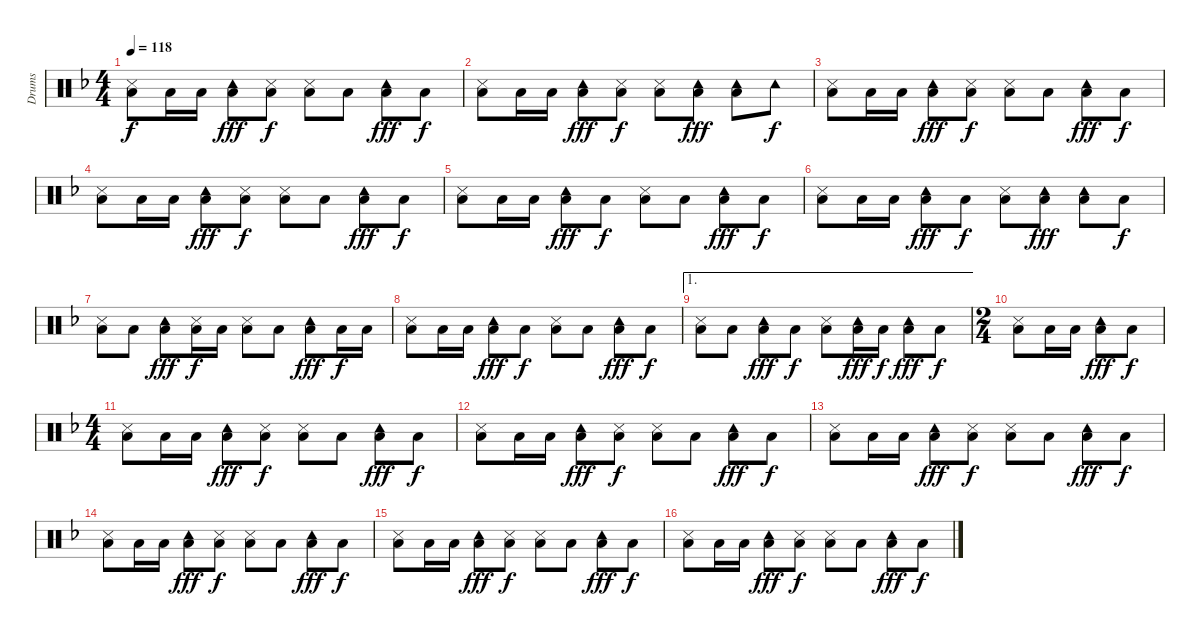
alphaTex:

\track ("Drums" "Drums") {instrument percussion}
\staff {score}
\articulation defaults
\ts (4 4)
\tempo 118
\clef neutral
\ks dminor
("Metronome (hit)" "Low Tom (hit)").8{dy f} "Low Tom (hit)".16 "Low Tom (hit)".16 ("Low Tom (hit)" "Tambourine (hit)").8{dy fff} ("Metronome (hit)" "Low Tom (hit)").8{dy f} ("Metronome (hit)" "Low Tom (hit)").8 "Low Tom (hit)".8 ("Low Tom (hit)" "Tambourine (hit)").8{dy fff} "Low Tom (hit)".8{dy f} |
("Metronome (hit)" "Low Tom (hit)").8 "Low Tom (hit)".16 "Low Tom (hit)".16 ("Low Tom (hit)" "Tambourine (hit)").8{dy fff} ("Metronome (hit)" "Low Tom (hit)").8{dy f} ("Metronome (hit)" "Low Tom (hit)").8 ("Low Tom (hit)" "Tambourine (hit)").8{dy fff} ("Low Tom (hit)" "Tambourine (hit)").8 "Tambourine (hit)".8{dy f} |
("Metronome (hit)" "Low Tom (hit)").8 "Low Tom (hit)".16 "Low Tom (hit)".16 ("Low Tom (hit)" "Tambourine (hit)").8{dy fff} ("Metronome (hit)" "Low Tom (hit)").8{dy f} ("Metronome (hit)" "Low Tom (hit)").8 "Low Tom (hit)".8 ("Low Tom (hit)" "Tambourine (hit)").8{dy fff} "Low Tom (hit)".8{dy f} |
("Metronome (hit)" "Low Tom (hit)").8 "Low Tom (hit)".16 "Low Tom (hit)".16 ("Low Tom (hit)" "Tambourine (hit)").8{dy fff} ("Metronome (hit)" "Low Tom (hit)").8{dy f} ("Metronome (hit)" "Low Tom (hit)").8 "Low Tom (hit)".8 ("Low Tom (hit)" "Tambourine (hit)").8{dy fff} "Low Tom (hit)".8{dy f} |
("Metronome (hit)" "Low Tom (hit)").8 "Low Tom (hit)".16 "Low Tom (hit)".16 ("Low Tom (hit)" "Tambourine (hit)").8{dy fff} "Low Tom (hit)".8{dy f} ("Metronome (hit)" "Low Tom (hit)").8 "Low Tom (hit)".8 ("Low Tom (hit)" "Tambourine (hit)").8{dy fff} "Low Tom (hit)".8{dy f} |
("Metronome (hit)" "Low Tom (hit)").8 "Low Tom (hit)".16 "Low Tom (hit)".16 ("Low Tom (hit)" "Tambourine (hit)").8{dy fff} "Low Tom (hit)".8{dy f} ("Metronome (hit)" "Low Tom (hit)").8 ("Low Tom (hit)" "Tambourine (hit)").8{dy fff} ("Low Tom (hit)" "Tambourine (hit)").8 "Low Tom (hit)".8{dy f} |
("Metronome (hit)" "Low Tom (hit)").8 "Low Tom (hit)".8 ("Low Tom (hit)" "Tambourine (hit)").8{dy fff} ("Metronome (hit)" "Low Tom (hit)").16{dy f} "Low Tom (hit)".16 ("Metronome (hit)" "Low Tom (hit)").8 "Low Tom (hit)".8 ("Low Tom (hit)" "Tambourine (hit)").8{dy fff} "Low Tom (hit)".16{dy f} "Low Tom (hit)".16 |
("Metronome (hit)" "Low Tom (hit)").8 "Low Tom (hit)".16 "Low Tom (hit)".16 ("Low Tom (hit)" "Tambourine (hit)").8{dy fff} "Low Tom (hit)".8{dy f} ("Metronome (hit)" "Low Tom (hit)").8 "Low Tom (hit)".8 ("Low Tom (hit)" "Tambourine (hit)").8{dy fff} "Low Tom (hit)".8{dy f} |
\ae 1
("Metronome (hit)" "Low Tom (hit)").8 "Low Tom (hit)".8 ("Low Tom (hit)" "Tambourine (hit)").8{dy fff} "Low Tom (hit)".8{dy f} ("Metronome (hit)" "Low Tom (hit)").8 ("Low Tom (hit)" "Tambourine (hit)").16{dy fff} "Low Tom (hit)".16{dy f} ("Low Tom (hit)" "Tambourine (hit)").8{dy fff} "Low Tom (hit)".8{dy f} |
\ts (2 4)
("Metronome (hit)" "Low Tom (hit)").8 "Low Tom (hit)".16 "Low Tom (hit)".16 ("Low Tom (hit)" "Tambourine (hit)").8{dy fff} "Low Tom (hit)".8{dy f} |
\ts (4 4)
("Metronome (hit)" "Low Tom (hit)").8 "Low Tom (hit)".16 "Low Tom (hit)".16 ("Low Tom (hit)" "Tambourine (hit)").8{dy fff} ("Metronome (hit)" "Low Tom (hit)").8{dy f} ("Metronome (hit)" "Low Tom (hit)").8 "Low Tom (hit)".8 ("Low Tom (hit)" "Tambourine (hit)").8{dy fff} "Low Tom (hit)".8{dy f} |
("Metronome (hit)" "Low Tom (hit)").8 "Low Tom (hit)".16 "Low Tom (hit)".16 ("Low Tom (hit)" "Tambourine (hit)").8{dy fff} ("Metronome (hit)" "Low Tom (hit)").8{dy f} ("Metronome (hit)" "Low Tom (hit)").8 "Low Tom (hit)".8 ("Low Tom (hit)" "Tambourine (hit)").8{dy fff} "Low Tom (hit)".8{dy f} |
("Metronome (hit)" "Low Tom (hit)").8 "Low Tom (hit)".16 "Low Tom (hit)".16 ("Low Tom (hit)" "Tambourine (hit)").8{dy fff} ("Metronome (hit)" "Low Tom (hit)").8{dy f} ("Metronome (hit)" "Low Tom (hit)").8 "Low Tom (hit)".8 ("Low Tom (hit)" "Tambourine (hit)").8{dy fff} "Low Tom (hit)".8{dy f} |
("Metronome (hit)" "Low Tom (hit)").8 "Low Tom (hit)".16 "Low Tom (hit)".16 ("Low Tom (hit)" "Tambourine (hit)").8{dy fff} ("Metronome (hit)" "Low Tom (hit)").8{dy f} ("Metronome (hit)" "Low Tom (hit)").8 "Low Tom (hit)".8 ("Low Tom (hit)" "Tambourine (hit)").8{dy fff} "Low Tom (hit)".8{dy f} |
("Metronome (hit)" "Low Tom (hit)").8 "Low Tom (hit)".16 "Low Tom (hit)".16 ("Low Tom (hit)" "Tambourine (hit)").8{dy fff} ("Metronome (hit)" "Low Tom (hit)").8{dy f} ("Metronome (hit)" "Low Tom (hit)").8 "Low Tom (hit)".8 ("Low Tom (hit)" "Tambourine (hit)").8{dy fff} "Low Tom (hit)".8{dy f} |
("Metronome (hit)" "Low Tom (hit)").8 "Low Tom (hit)".16 "Low Tom (hit)".16 ("Low Tom (hit)" "Tambourine (hit)").8{dy fff} ("Metronome (hit)" "Low Tom (hit)").8{dy f} ("Metronome (hit)" "Low Tom (hit)").8 "Low Tom (hit)".8 ("Low Tom (hit)" "Tambourine (hit)").8{dy fff} "Low Tom (hit)".8{dy f}
